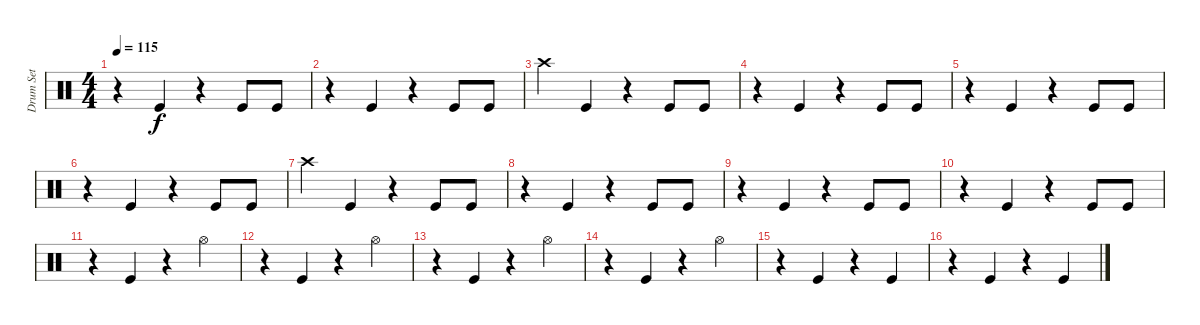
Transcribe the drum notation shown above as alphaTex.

\track ("Drum Set" "Drum Set") {instrument percussion}
\staff {score}
\articulation defaults
\ts (4 4)
\tempo 115
\clef neutral
\ks c
r.4{dy f} "Kick (hit)".4 r.4 "Kick (hit)".8 "Kick (hit)".8 |
r.4 "Kick (hit)".4 r.4 "Kick (hit)".8 "Kick (hit)".8 |
"Crash high (hit)".4 "Kick (hit)".4 r.4 "Kick (hit)".8 "Kick (hit)".8 |
r.4 "Kick (hit)".4 r.4 "Kick (hit)".8 "Kick (hit)".8 |
r.4 "Kick (hit)".4 r.4 "Kick (hit)".8 "Kick (hit)".8 |
r.4 "Kick (hit)".4 r.4 "Kick (hit)".8 "Kick (hit)".8 |
"Crash high (hit)".4 "Kick (hit)".4 r.4 "Kick (hit)".8 "Kick (hit)".8 |
r.4 "Kick (hit)".4 r.4 "Kick (hit)".8 "Kick (hit)".8 |
r.4 "Kick (hit)".4 r.4 "Kick (hit)".8 "Kick (hit)".8 |
r.4 "Kick (hit)".4 r.4 "Kick (hit)".8 "Kick (hit)".8 |
r.4 "Kick (hit)".4 r.4 "Hi-Hat (open)".4 |
r.4 "Kick (hit)".4 r.4 "Hi-Hat (open)".4 |
r.4 "Kick (hit)".4 r.4 "Hi-Hat (open)".4 |
r.4 "Kick (hit)".4 r.4 "Hi-Hat (open)".4 |
r.4 "Kick (hit)".4 r.4 "Kick (hit)".4 |
r.4 "Kick (hit)".4 r.4 "Kick (hit)".4
